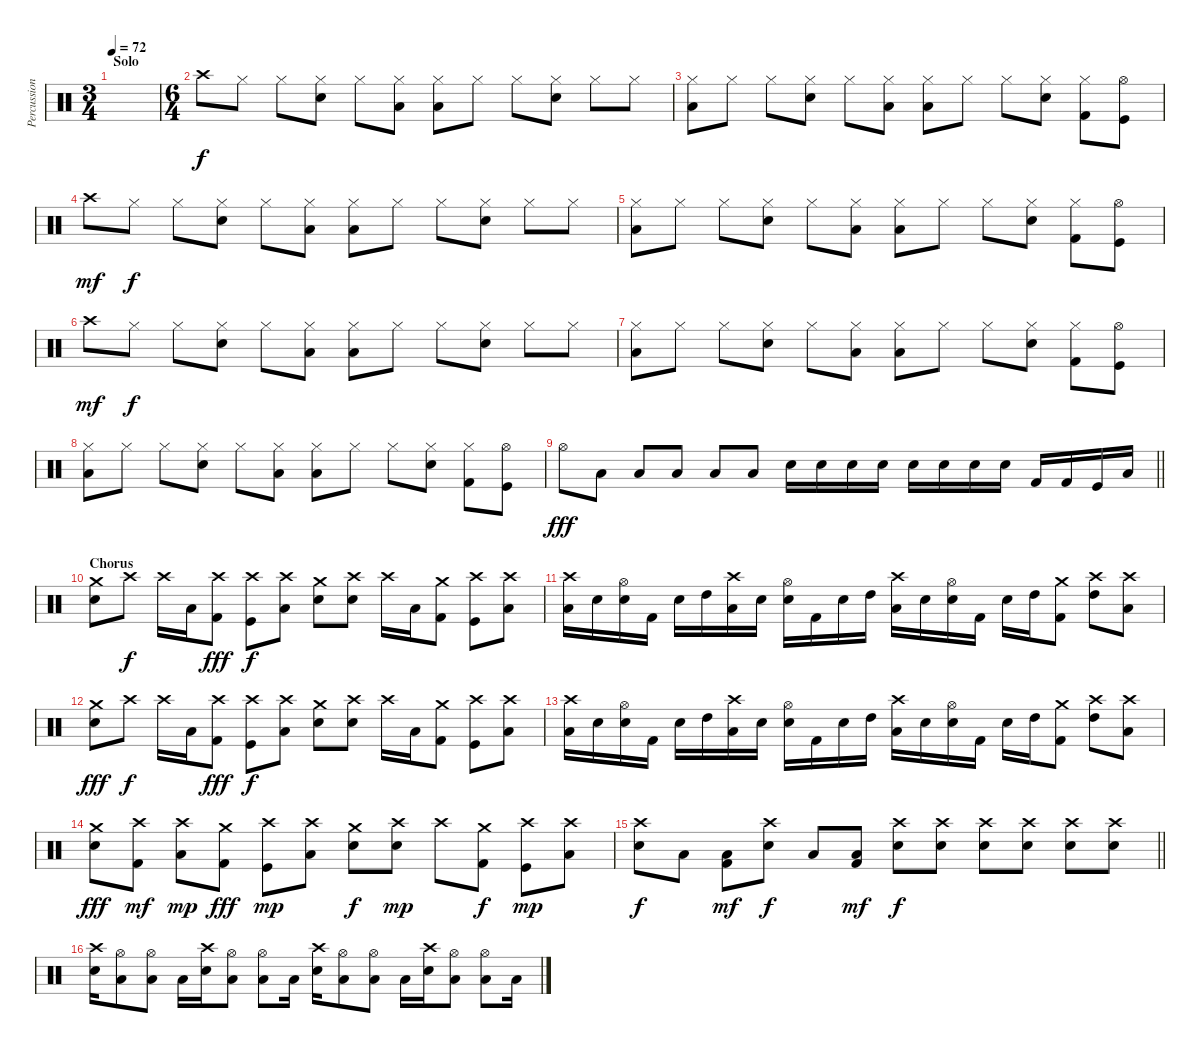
\track ("Percussion" "Percussion") {instrument percussion}
\staff {score}
\articulation defaults
\ts (3 4)
\section ("" "Solo")
\tempo 72
\clef neutral
\ks c
|
\ts (6 4)
"Crash high (hit)".8 "Hi-Hat (closed)".8 "Hi-Hat (closed)".8 ("Hi-Hat (closed)" "Snare (hit) 2").8 "Hi-Hat (closed)".8 ("Hi-Hat (closed)" "Low Floor Tom (hit)").8 ("Hi-Hat (closed)" "Low Floor Tom (hit)").8 "Hi-Hat (closed)".8 "Hi-Hat (closed)".8 ("Hi-Hat (closed)" "Snare (hit) 2").8 "Hi-Hat (closed)".8 "Hi-Hat (closed)".8 |
("Hi-Hat (closed)" "Low Floor Tom (hit)").8 "Hi-Hat (closed)".8 "Hi-Hat (closed)".8 ("Hi-Hat (closed)" "Snare (hit) 2").8 "Hi-Hat (closed)".8 ("Hi-Hat (closed)" "Low Floor Tom (hit)").8 ("Hi-Hat (closed)" "Low Floor Tom (hit)").8 "Hi-Hat (closed)".8 "Hi-Hat (closed)".8 ("Hi-Hat (closed)" "Snare (hit) 2").8 ("Hi-Hat (closed)" "Kick (hit) 2").8 ("Hi-Hat (open)" "Kick (hit)").8 |
"Crash high (hit)".8{dy mf} "Hi-Hat (closed)".8{dy f} "Hi-Hat (closed)".8 ("Hi-Hat (closed)" "Snare (hit) 2").8 "Hi-Hat (closed)".8 ("Hi-Hat (closed)" "Low Floor Tom (hit)").8 ("Hi-Hat (closed)" "Low Floor Tom (hit)").8 "Hi-Hat (closed)".8 "Hi-Hat (closed)".8 ("Hi-Hat (closed)" "Snare (hit) 2").8 "Hi-Hat (closed)".8 "Hi-Hat (closed)".8 |
("Hi-Hat (closed)" "Low Floor Tom (hit)").8 "Hi-Hat (closed)".8 "Hi-Hat (closed)".8 ("Hi-Hat (closed)" "Snare (hit) 2").8 "Hi-Hat (closed)".8 ("Hi-Hat (closed)" "Low Floor Tom (hit)").8 ("Hi-Hat (closed)" "Low Floor Tom (hit)").8 "Hi-Hat (closed)".8 "Hi-Hat (closed)".8 ("Hi-Hat (closed)" "Snare (hit) 2").8 ("Hi-Hat (closed)" "Kick (hit) 2").8 ("Hi-Hat (open)" "Kick (hit)").8 |
"Crash high (hit)".8{dy mf} "Hi-Hat (closed)".8{dy f} "Hi-Hat (closed)".8 ("Hi-Hat (closed)" "Snare (hit) 2").8 "Hi-Hat (closed)".8 ("Hi-Hat (closed)" "Low Floor Tom (hit)").8 ("Hi-Hat (closed)" "Low Floor Tom (hit)").8 "Hi-Hat (closed)".8 "Hi-Hat (closed)".8 ("Hi-Hat (closed)" "Snare (hit) 2").8 "Hi-Hat (closed)".8 "Hi-Hat (closed)".8 |
("Hi-Hat (closed)" "Low Floor Tom (hit)").8 "Hi-Hat (closed)".8 "Hi-Hat (closed)".8 ("Hi-Hat (closed)" "Snare (hit) 2").8 "Hi-Hat (closed)".8 ("Hi-Hat (closed)" "Low Floor Tom (hit)").8 ("Hi-Hat (closed)" "Low Floor Tom (hit)").8 "Hi-Hat (closed)".8 "Hi-Hat (closed)".8 ("Hi-Hat (closed)" "Snare (hit) 2").8 ("Hi-Hat (closed)" "Kick (hit) 2").8 ("Hi-Hat (open)" "Kick (hit)").8 |
("Hi-Hat (closed)" "Low Floor Tom (hit)").8 "Hi-Hat (closed)".8 "Hi-Hat (closed)".8 ("Hi-Hat (closed)" "Snare (hit) 2").8 "Hi-Hat (closed)".8 ("Hi-Hat (closed)" "Low Floor Tom (hit)").8 ("Hi-Hat (closed)" "Low Floor Tom (hit)").8 "Hi-Hat (closed)".8 "Hi-Hat (closed)".8 ("Hi-Hat (closed)" "Snare (hit) 2").8 ("Hi-Hat (closed)" "Kick (hit) 2").8 ("Hi-Hat (open)" "Kick (hit)").8 |
\barLineRight lightlight "Hi-Hat (open)".8{dy fff} "Low Floor Tom (hit)".8 "Low Floor Tom (hit)".8 "Low Floor Tom (hit)".8 "Low Floor Tom (hit)".8 "Low Floor Tom (hit)".8 "Electric Snare (hit)".16 "Electric Snare (hit)".16 "Electric Snare (hit)".16 "Snare (hit) 2".16 "Snare (hit) 2".16 "Snare (hit) 2".16 "Snare (hit) 2".16 "Snare (hit) 2".16 "Kick (hit) 2".16 "Kick (hit) 2".16 "Kick (hit)".16 "Low Tom (hit)".16
|
\section ("" "Chorus")
("Crash medium (hit)" "Snare (hit) 2").8 "Crash high (hit)".8{dy f} "Crash high (hit)".16 "Low Tom (hit)".16 ("Crash high (hit)" "Kick (hit) 2").8{dy fff} ("Crash high (hit)" "Kick (hit)").8{dy f} ("Crash high (hit)" "Low Tom (hit)").8 ("Crash medium (hit)" "Snare (hit) 2").8 ("Crash high (hit)" "Snare (hit) 2").8 "Crash high (hit)".16 "Low Tom (hit)".16 ("Crash medium (hit)" "Kick (hit) 2").8 ("Crash high (hit)" "Kick (hit)").8 ("Crash high (hit)" "Low Tom (hit)").8 |
("Crash high (hit)" "Low Tom (hit)").16 "Snare (hit) 2".16 ("Hi-Hat (open)" "Electric Snare (hit)").16 "Kick (hit) 2".16 "Snare (hit) 2".16 "High Tom (hit)".16 ("Crash high (hit)" "Low Tom (hit)").16 "Snare (hit) 2".16 ("Hi-Hat (open)" "Electric Snare (hit)").16 "Kick (hit) 2".16 "Snare (hit) 2".16 "High Tom (hit)".16 ("Crash high (hit)" "Low Tom (hit)").16 "Snare (hit) 2".16 ("Hi-Hat (open)" "Electric Snare (hit)").16 "Kick (hit) 2".16 "Snare (hit) 2".16 "High Tom (hit)".16 ("Crash medium (hit)" "Kick (hit) 2").8 ("Crash high (hit)" "High Tom (hit)").8 ("Crash high (hit)" "Low Tom (hit)").8 |
("Crash medium (hit)" "Snare (hit) 2").8{dy fff} "Crash high (hit)".8{dy f} "Crash high (hit)".16 "Low Tom (hit)".16 ("Crash high (hit)" "Kick (hit) 2").8{dy fff} ("Crash high (hit)" "Kick (hit)").8{dy f} ("Crash high (hit)" "Low Tom (hit)").8 ("Crash medium (hit)" "Snare (hit) 2").8 ("Crash high (hit)" "Snare (hit) 2").8 "Crash high (hit)".16 "Low Tom (hit)".16 ("Crash medium (hit)" "Kick (hit) 2").8 ("Crash high (hit)" "Kick (hit)").8 ("Crash high (hit)" "Low Tom (hit)").8 |
("Crash high (hit)" "Low Tom (hit)").16 "Snare (hit) 2".16 ("Hi-Hat (open)" "Electric Snare (hit)").16 "Kick (hit) 2".16 "Snare (hit) 2".16 "High Tom (hit)".16 ("Crash high (hit)" "Low Tom (hit)").16 "Snare (hit) 2".16 ("Hi-Hat (open)" "Electric Snare (hit)").16 "Kick (hit) 2".16 "Snare (hit) 2".16 "High Tom (hit)".16 ("Crash high (hit)" "Low Tom (hit)").16 "Snare (hit) 2".16 ("Hi-Hat (open)" "Electric Snare (hit)").16 "Kick (hit) 2".16 "Snare (hit) 2".16 "High Tom (hit)".16 ("Crash medium (hit)" "Kick (hit) 2").8 ("Crash high (hit)" "High Tom (hit)").8 ("Crash high (hit)" "Low Tom (hit)").8 |
("Crash medium (hit)" "Snare (hit) 2").8{dy fff} ("Crash high (hit)" "Kick (hit) 2").8{dy mf} ("Crash high (hit)" "Low Tom (hit)").8{dy mp} ("Crash medium (hit)" "Kick (hit) 2").8{dy fff} ("Crash high (hit)" "Kick (hit)").8{dy mp} ("Crash high (hit)" "Low Tom (hit)").8 ("Crash medium (hit)" "Snare (hit) 2").8{dy f} ("Crash high (hit)" "Snare (hit) 2").8{dy mp} "Crash high (hit)".8 ("Crash medium (hit)" "Kick (hit) 2").8{dy f} ("Crash high (hit)" "Kick (hit)").8{dy mp} ("Crash high (hit)" "Low Tom (hit)").8 |
\barLineRight lightlight
("Crash high (hit)" "Snare (hit) 2").8{dy f} "Low Tom (hit)".8 ("Low Tom (hit)" "Kick (hit) 2").8{dy mf} ("Crash high (hit)" "Snare (hit) 2").8{dy f} "Low Tom (hit)".8 ("Low Tom (hit)" "Kick (hit) 2").8{dy mf} ("Crash high (hit)" "Snare (hit) 2").8{dy f} ("Crash high (hit)" "Snare (hit) 2").8 ("Crash high (hit)" "Snare (hit) 2").8 ("Crash high (hit)" "Snare (hit) 2").8 ("Crash high (hit)" "Snare (hit) 2").8 ("Crash high (hit)" "Snare (hit) 2").8 |
\section ("" "")
("Crash high (hit)" "Electric Snare (hit)").16 ("Hi-Hat (open)" "Low Floor Tom (hit)").8 ("Hi-Hat (open)" "Low Floor Tom (hit)").8 "Low Floor Tom (hit)".16 ("Crash high (hit)" "Electric Snare (hit)").16 ("Hi-Hat (open)" "Low Floor Tom (hit)").8 ("Hi-Hat (open)" "Low Floor Tom (hit)").8 "Low Floor Tom (hit)".16 ("Crash high (hit)" "Electric Snare (hit)").16 ("Hi-Hat (open)" "Low Floor Tom (hit)").8 ("Hi-Hat (open)" "Low Floor Tom (hit)").8 "Low Floor Tom (hit)".16 ("Crash high (hit)" "Electric Snare (hit)").16 ("Hi-Hat (open)" "Low Floor Tom (hit)").8 ("Hi-Hat (open)" "Low Floor Tom (hit)").8 "Low Floor Tom (hit)".16
